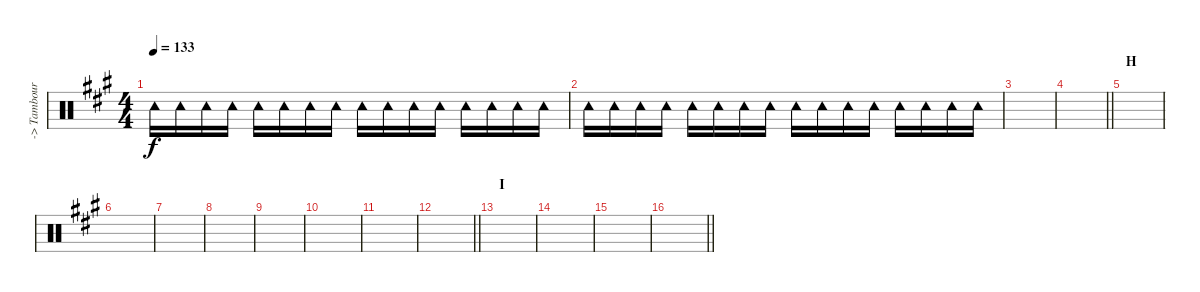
\track ("-> Tambourine" "-> Tambour") {instrument percussion}
\staff {score}
\articulation defaults
\ts (4 4)
\tempo 133
\clef neutral
\ks a "Tambourine (hit)".16{dy f} "Tambourine (hit)".16 "Tambourine (hit)".16 "Tambourine (hit)".16 "Tambourine (hit)".16 "Tambourine (hit)".16 "Tambourine (hit)".16 "Tambourine (hit)".16 "Tambourine (hit)".16 "Tambourine (hit)".16 "Tambourine (hit)".16 "Tambourine (hit)".16 "Tambourine (hit)".16 "Tambourine (hit)".16 "Tambourine (hit)".16 "Tambourine (hit)".16
|
"Tambourine (hit)".16 "Tambourine (hit)".16 "Tambourine (hit)".16 "Tambourine (hit)".16 "Tambourine (hit)".16 "Tambourine (hit)".16 "Tambourine (hit)".16 "Tambourine (hit)".16 "Tambourine (hit)".16 "Tambourine (hit)".16 "Tambourine (hit)".16 "Tambourine (hit)".16 "Tambourine (hit)".16 "Tambourine (hit)".16 "Tambourine (hit)".16 "Tambourine (hit)".16 |
|
\barLineRight lightlight
|
\section ("" "H")
|
|
|
|
|
|
|
\barLineRight lightlight
|
\section ("" "I")
|
|
|
\barLineRight lightlight
